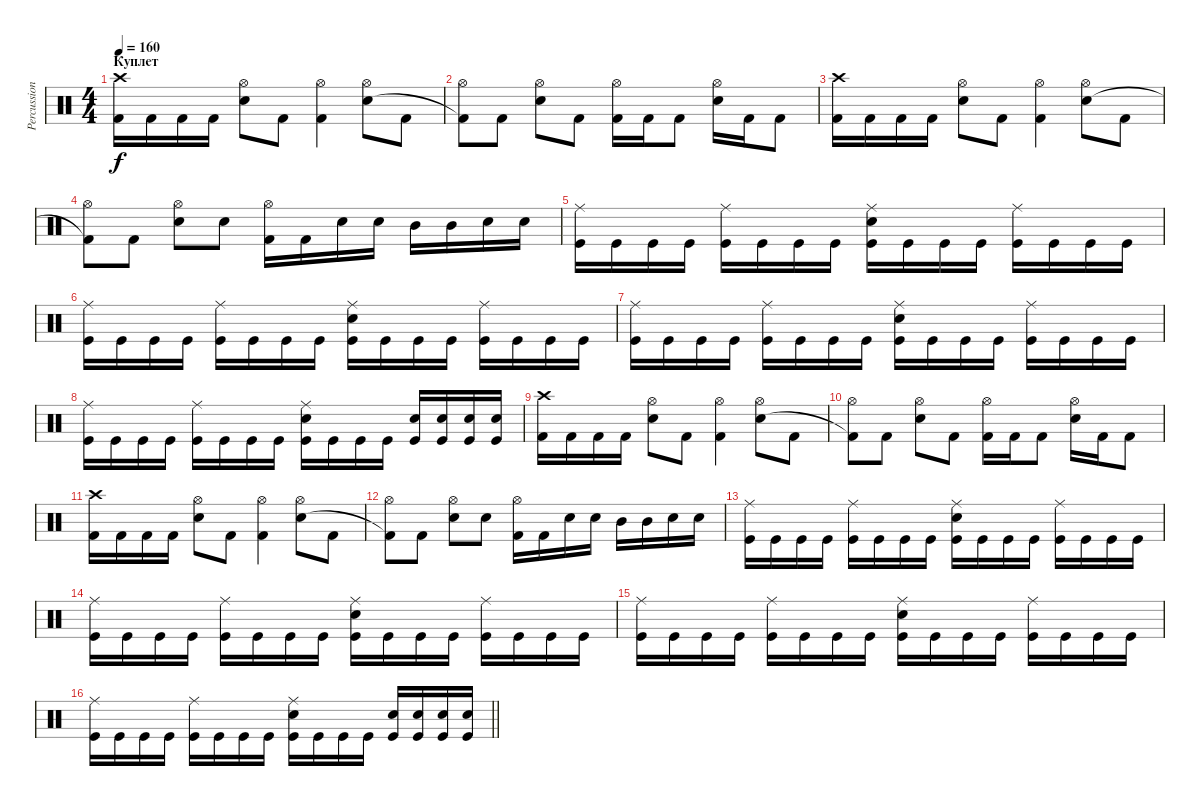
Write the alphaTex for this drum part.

\track ("Percussioni" "Percussion") {instrument percussion}
\staff {score}
\articulation defaults
\ts (4 4)
\section ("" "Куплет")
\tempo 160
\clef neutral
\ks c
("Crash high (hit)" "Kick (hit) 2").16{dy f} "Kick (hit) 2".16 "Kick (hit) 2".16 "Kick (hit) 2".16 ("Hi-Hat (open)" "Electric Snare (hit)").8 "Kick (hit) 2".8 ("Hi-Hat (open)" "Kick (hit) 2").4 ("Hi-Hat (open)" "Electric Snare (hit)").8 "Kick (hit) 2".8 |
("Hi-Hat (open)" "Kick (hit) 2"{t}).8 "Kick (hit) 2".8 ("Hi-Hat (open)" "Electric Snare (hit)").8 "Kick (hit) 2".8 ("Hi-Hat (open)" "Kick (hit) 2").16 "Kick (hit) 2".16 "Kick (hit) 2".8 ("Hi-Hat (open)" "Electric Snare (hit)").16 "Kick (hit) 2".16 "Kick (hit) 2".8 |
("Crash high (hit)" "Kick (hit) 2").16 "Kick (hit) 2".16 "Kick (hit) 2".16 "Kick (hit) 2".16 ("Hi-Hat (open)" "Electric Snare (hit)").8 "Kick (hit) 2".8 ("Hi-Hat (open)" "Kick (hit) 2").4 ("Hi-Hat (open)" "Electric Snare (hit)").8 "Kick (hit) 2".8 |
("Hi-Hat (open)" "Kick (hit) 2"{t}).8 "Kick (hit) 2".8 ("Hi-Hat (open)" "Electric Snare (hit)").8 "Electric Snare (hit)".8 ("Hi-Hat (open)" "Kick (hit) 2").16 "Kick (hit) 2".16 "Electric Snare (hit)".16 "Electric Snare (hit)".16 "Mid Tom (hit)".16 "Mid Tom (hit)".16 "Electric Snare (hit)".16 "Electric Snare (hit)".16 |
("Ride (middle)" "Kick (hit)").16 "Kick (hit)".16 "Kick (hit)".16 "Kick (hit)".16 ("Ride (middle)" "Kick (hit)").16 "Kick (hit)".16 "Kick (hit)".16 "Kick (hit)".16 ("Snare (hit) 2" "Ride (middle)" "Kick (hit)").16 "Kick (hit)".16 "Kick (hit)".16 "Kick (hit)".16 ("Ride (middle)" "Kick (hit)").16 "Kick (hit)".16 "Kick (hit)".16 "Kick (hit)".16 |
("Ride (middle)" "Kick (hit)").16 "Kick (hit)".16 "Kick (hit)".16 "Kick (hit)".16 ("Ride (middle)" "Kick (hit)").16 "Kick (hit)".16 "Kick (hit)".16 "Kick (hit)".16 ("Snare (hit) 2" "Ride (middle)" "Kick (hit)").16 "Kick (hit)".16 "Kick (hit)".16 "Kick (hit)".16 ("Ride (middle)" "Kick (hit)").16 "Kick (hit)".16 "Kick (hit)".16 "Kick (hit)".16 |
("Ride (middle)" "Kick (hit)").16 "Kick (hit)".16 "Kick (hit)".16 "Kick (hit)".16 ("Ride (middle)" "Kick (hit)").16 "Kick (hit)".16 "Kick (hit)".16 "Kick (hit)".16 ("Snare (hit) 2" "Ride (middle)" "Kick (hit)").16 "Kick (hit)".16 "Kick (hit)".16 "Kick (hit)".16 ("Ride (middle)" "Kick (hit)").16 "Kick (hit)".16 "Kick (hit)".16 "Kick (hit)".16 |
("Ride (middle)" "Kick (hit)").16 "Kick (hit)".16 "Kick (hit)".16 "Kick (hit)".16 ("Ride (middle)" "Kick (hit)").16 "Kick (hit)".16 "Kick (hit)".16 "Kick (hit)".16 ("Snare (hit) 2" "Ride (middle)" "Kick (hit)").16 "Kick (hit)".16 "Kick (hit)".16 "Kick (hit)".16 ("Snare (hit) 2" "Kick (hit)").16 ("Snare (hit) 2" "Kick (hit)").16 ("Snare (hit) 2" "Kick (hit)").16 ("Snare (hit) 2" "Kick (hit)").16 |
("Crash high (hit)" "Kick (hit) 2").16 "Kick (hit) 2".16 "Kick (hit) 2".16 "Kick (hit) 2".16 ("Hi-Hat (open)" "Electric Snare (hit)").8 "Kick (hit) 2".8 ("Hi-Hat (open)" "Kick (hit) 2").4 ("Hi-Hat (open)" "Electric Snare (hit)").8 "Kick (hit) 2".8 |
("Hi-Hat (open)" "Kick (hit) 2"{t}).8 "Kick (hit) 2".8 ("Hi-Hat (open)" "Electric Snare (hit)").8 "Kick (hit) 2".8 ("Hi-Hat (open)" "Kick (hit) 2").16 "Kick (hit) 2".16 "Kick (hit) 2".8 ("Hi-Hat (open)" "Electric Snare (hit)").16 "Kick (hit) 2".16 "Kick (hit) 2".8 |
("Crash high (hit)" "Kick (hit) 2").16 "Kick (hit) 2".16 "Kick (hit) 2".16 "Kick (hit) 2".16 ("Hi-Hat (open)" "Electric Snare (hit)").8 "Kick (hit) 2".8 ("Hi-Hat (open)" "Kick (hit) 2").4 ("Hi-Hat (open)" "Electric Snare (hit)").8 "Kick (hit) 2".8 |
("Hi-Hat (open)" "Kick (hit) 2"{t}).8 "Kick (hit) 2".8 ("Hi-Hat (open)" "Electric Snare (hit)").8 "Electric Snare (hit)".8 ("Hi-Hat (open)" "Kick (hit) 2").16 "Kick (hit) 2".16 "Electric Snare (hit)".16 "Electric Snare (hit)".16 "Mid Tom (hit)".16 "Mid Tom (hit)".16 "Electric Snare (hit)".16 "Electric Snare (hit)".16 |
("Ride (middle)" "Kick (hit)").16 "Kick (hit)".16 "Kick (hit)".16 "Kick (hit)".16 ("Ride (middle)" "Kick (hit)").16 "Kick (hit)".16 "Kick (hit)".16 "Kick (hit)".16 ("Snare (hit) 2" "Ride (middle)" "Kick (hit)").16 "Kick (hit)".16 "Kick (hit)".16 "Kick (hit)".16 ("Ride (middle)" "Kick (hit)").16 "Kick (hit)".16 "Kick (hit)".16 "Kick (hit)".16 |
("Ride (middle)" "Kick (hit)").16 "Kick (hit)".16 "Kick (hit)".16 "Kick (hit)".16 ("Ride (middle)" "Kick (hit)").16 "Kick (hit)".16 "Kick (hit)".16 "Kick (hit)".16 ("Snare (hit) 2" "Ride (middle)" "Kick (hit)").16 "Kick (hit)".16 "Kick (hit)".16 "Kick (hit)".16 ("Ride (middle)" "Kick (hit)").16 "Kick (hit)".16 "Kick (hit)".16 "Kick (hit)".16 |
("Ride (middle)" "Kick (hit)").16 "Kick (hit)".16 "Kick (hit)".16 "Kick (hit)".16 ("Ride (middle)" "Kick (hit)").16 "Kick (hit)".16 "Kick (hit)".16 "Kick (hit)".16 ("Snare (hit) 2" "Ride (middle)" "Kick (hit)").16 "Kick (hit)".16 "Kick (hit)".16 "Kick (hit)".16 ("Ride (middle)" "Kick (hit)").16 "Kick (hit)".16 "Kick (hit)".16 "Kick (hit)".16 |
\barLineRight lightlight
("Ride (middle)" "Kick (hit)").16 "Kick (hit)".16 "Kick (hit)".16 "Kick (hit)".16 ("Ride (middle)" "Kick (hit)").16 "Kick (hit)".16 "Kick (hit)".16 "Kick (hit)".16 ("Snare (hit) 2" "Ride (middle)" "Kick (hit)").16 "Kick (hit)".16 "Kick (hit)".16 "Kick (hit)".16 ("Snare (hit) 2" "Kick (hit)").16 ("Snare (hit) 2" "Kick (hit)").16 ("Snare (hit) 2" "Kick (hit)").16 ("Snare (hit) 2" "Kick (hit)").16
